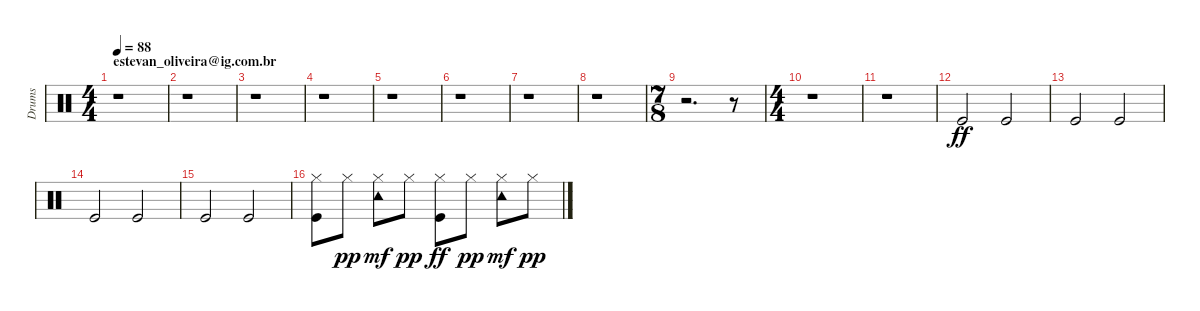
\track ("Drums" "Drums") {instrument percussion}
\staff {score}
\articulation defaults
\ts (4 4)
\section ("" "estevan_oliveira@ig.com.br")
\tempo 88
\clef neutral
\ks c
r.1{dy ff} |
r.1 |
r.1 |
r.1 |
r.1 |
r.1 |
r.1 |
r.1 |
\ts (7 8)
r.2{d} r.8 |
\ts (4 4)
r.1 |
r.1 |
"Kick (hit)".2 "Kick (hit)".2 |
"Kick (hit)".2 "Kick (hit)".2 |
"Kick (hit)".2 "Kick (hit)".2 |
"Kick (hit)".2 "Kick (hit)".2 |
("Kick (hit)" "Hi-Hat (closed)").8 "Hi-Hat (closed)".8{dy pp} ("Hi-Hat (closed)" "Tambourine (hit)").8{dy mf} "Hi-Hat (closed)".8{dy pp} ("Kick (hit)" "Hi-Hat (closed)").8{dy ff} "Hi-Hat (closed)".8{dy pp} ("Hi-Hat (closed)" "Tambourine (hit)").8{dy mf} "Hi-Hat (closed)".8{dy pp}
